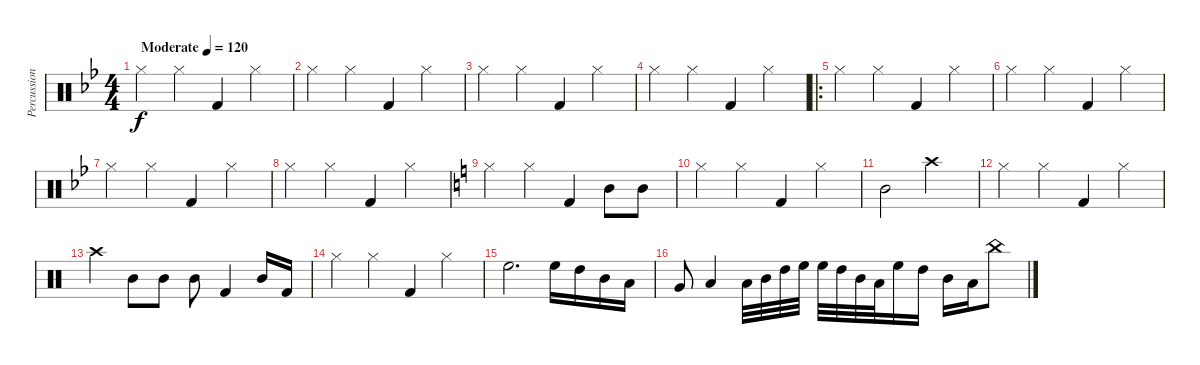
\track ("Percussion" "Percussion") {instrument percussion}
\staff {score}
\articulation defaults
\ts (4 4)
\tempo (120 "Moderate")
\clef neutral
\ks bb "Hi-Hat (closed)".4{dy f} "Hi-Hat (closed)".4 "Kick (hit) 2".4 "Hi-Hat (closed)".4
|
"Hi-Hat (closed)".4 "Hi-Hat (closed)".4 "Kick (hit) 2".4 "Hi-Hat (closed)".4 |
"Hi-Hat (closed)".4 "Hi-Hat (closed)".4 "Kick (hit) 2".4 "Hi-Hat (closed)".4 |
"Hi-Hat (closed)".4 "Hi-Hat (closed)".4 "Kick (hit) 2".4 "Hi-Hat (closed)".4 |
\ro "Hi-Hat (closed)".4 "Hi-Hat (closed)".4 "Kick (hit) 2".4 "Hi-Hat (closed)".4
|
"Hi-Hat (closed)".4 "Hi-Hat (closed)".4 "Kick (hit) 2".4 "Hi-Hat (closed)".4 |
"Hi-Hat (closed)".4 "Hi-Hat (closed)".4 "Kick (hit) 2".4 "Hi-Hat (closed)".4 |
"Hi-Hat (closed)".4 "Hi-Hat (closed)".4 "Kick (hit) 2".4 "Hi-Hat (closed)".4 |
\ks c "Hi-Hat (closed)".4 "Hi-Hat (closed)".4 "Kick (hit) 2".4 "Mid Tom (hit)".8 "Mid Tom (hit)".8
|
"Hi-Hat (closed)".4 "Hi-Hat (closed)".4 "Kick (hit) 2".4 "Hi-Hat (closed)".4 |
"Mid Tom (hit)".2 "Crash high (hit)".2 |
"Hi-Hat (closed)".4 "Hi-Hat (closed)".4 "Kick (hit) 2".4 "Hi-Hat (closed)".4 |
"Crash high (hit)".4 "Mid Tom (hit)".8 "Mid Tom (hit)".8 "Mid Tom (hit)".8 "Kick (hit) 2".4 "Mid Tom (hit)".16 "Kick (hit) 2".16 |
"Hi-Hat (closed)".4 "Hi-Hat (closed)".4 "Kick (hit) 2".4 "Hi-Hat (closed)".4 |
"High Floor Tom (hit)".2{d} "High Floor Tom (hit)".16 "High Tom (hit)".16 "Mid Tom (hit)".16 "Low Tom (hit)".16 |
"Very Low Tom (hit)".8 "Low Floor Tom (hit)".4 "Low Tom (hit)".32 "Mid Tom (hit)".32 "High Tom (hit)".32 "High Floor Tom (hit)".32 "High Floor Tom (hit)".32 "High Tom (hit)".32 "Mid Tom (hit)".32 "Low Tom (hit)".32 "High Floor Tom (hit)".16 "High Tom (hit)".16 "Mid Tom (hit)".16 "Low Tom (hit)".16 "China (hit)".8
